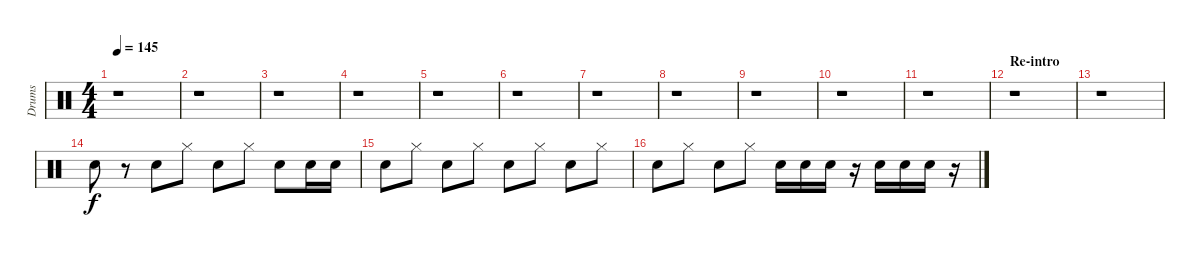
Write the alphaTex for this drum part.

\track ("Drums" "Drums") {instrument percussion}
\staff {score}
\articulation defaults
\ts (4 4)
\tempo 145
\clef neutral
\ks c
r.1{dy f} |
r.1 |
r.1 |
r.1 |
r.1 |
r.1 |
r.1 |
r.1 |
r.1 |
r.1 |
r.1 |
\section ("" "Re-intro")
r.1 |
r.1 |
"Electric Snare (hit)".8 r.8 "Electric Snare (hit)".8 "Hi-Hat (closed)".8 "Electric Snare (hit)".8 "Hi-Hat (closed)".8 "Electric Snare (hit)".8 "Electric Snare (hit)".16 "Electric Snare (hit)".16 |
"Electric Snare (hit)".8 "Hi-Hat (closed)".8 "Electric Snare (hit)".8 "Hi-Hat (closed)".8 "Electric Snare (hit)".8 "Hi-Hat (closed)".8 "Electric Snare (hit)".8 "Hi-Hat (closed)".8 |
"Electric Snare (hit)".8 "Hi-Hat (closed)".8 "Electric Snare (hit)".8 "Hi-Hat (closed)".8 "Electric Snare (hit)".16 "Electric Snare (hit)".16 "Electric Snare (hit)".16 r.16 "Electric Snare (hit)".16 "Electric Snare (hit)".16 "Electric Snare (hit)".16 r.16
